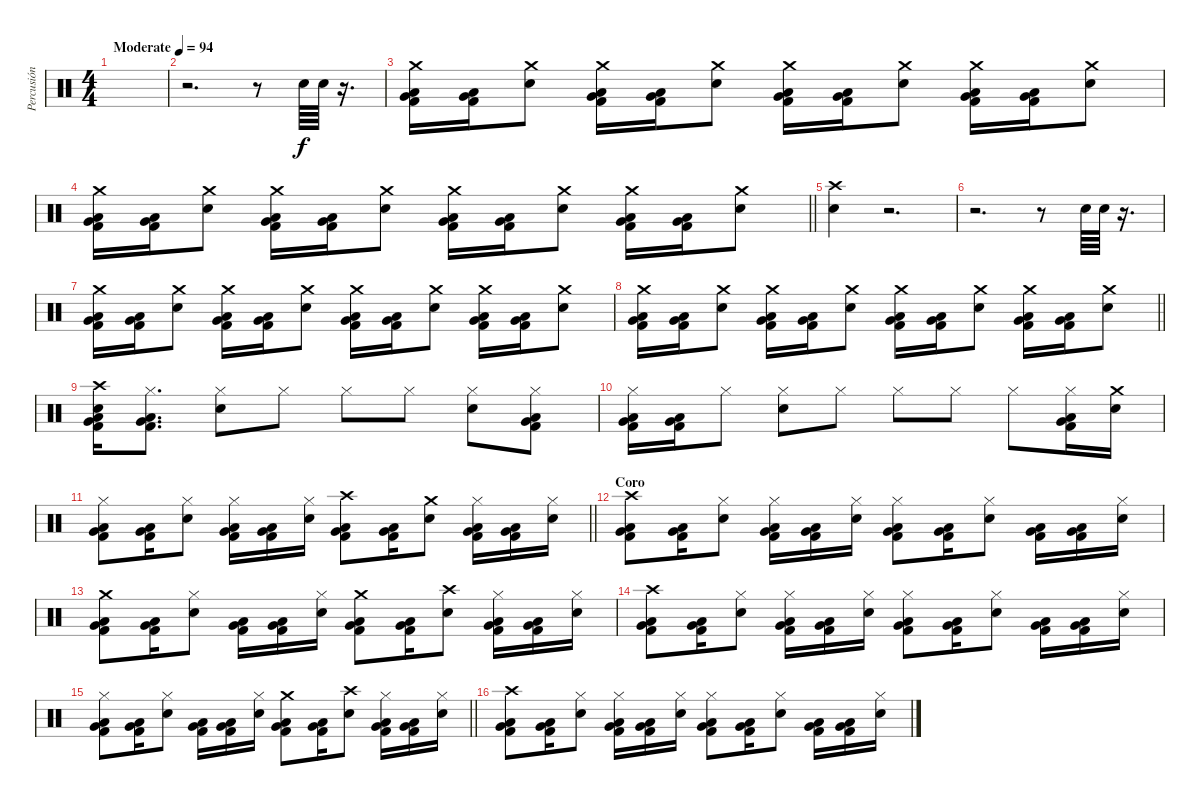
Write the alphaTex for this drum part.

\track ("Percusión" "Percusión") {instrument percussion}
\staff {score}
\articulation defaults
\ts (4 4)
\tempo (94 "Moderate")
\clef neutral
\ks c
|
r.2{d} r.8 "Electric Snare (hit)".64 "Electric Snare (hit)".64 r.16{d} |
("Crash medium (hit)" "Kick (hit) 2" "Low Floor Tom (hit)" "Very Low Tom (hit)").16 ("Kick (hit) 2" "Low Floor Tom (hit)" "Very Low Tom (hit)").16 ("Crash medium (hit)" "Electric Snare (hit)").8 ("Crash medium (hit)" "Kick (hit) 2" "Low Floor Tom (hit)" "Very Low Tom (hit)").16 ("Kick (hit) 2" "Low Floor Tom (hit)" "Very Low Tom (hit)").16 ("Crash medium (hit)" "Electric Snare (hit)").8 ("Crash medium (hit)" "Kick (hit) 2" "Low Floor Tom (hit)" "Very Low Tom (hit)").16 ("Kick (hit) 2" "Low Floor Tom (hit)" "Very Low Tom (hit)").16 ("Crash medium (hit)" "Electric Snare (hit)").8 ("Crash medium (hit)" "Kick (hit) 2" "Low Floor Tom (hit)" "Very Low Tom (hit)").16 ("Kick (hit) 2" "Low Floor Tom (hit)" "Very Low Tom (hit)").16 ("Crash medium (hit)" "Electric Snare (hit)").8 |
\barLineRight lightlight
("Crash medium (hit)" "Kick (hit) 2" "Low Floor Tom (hit)" "Very Low Tom (hit)").16 ("Kick (hit) 2" "Low Floor Tom (hit)" "Very Low Tom (hit)").16 ("Crash medium (hit)" "Electric Snare (hit)").8 ("Crash medium (hit)" "Kick (hit) 2" "Low Floor Tom (hit)" "Very Low Tom (hit)").16 ("Kick (hit) 2" "Low Floor Tom (hit)" "Very Low Tom (hit)").16 ("Crash medium (hit)" "Electric Snare (hit)").8 ("Crash medium (hit)" "Kick (hit) 2" "Low Floor Tom (hit)" "Very Low Tom (hit)").16 ("Kick (hit) 2" "Low Floor Tom (hit)" "Very Low Tom (hit)").16 ("Crash medium (hit)" "Electric Snare (hit)").8 ("Crash medium (hit)" "Kick (hit) 2" "Low Floor Tom (hit)" "Very Low Tom (hit)").16 ("Kick (hit) 2" "Low Floor Tom (hit)" "Very Low Tom (hit)").16 ("Crash medium (hit)" "Electric Snare (hit)").8 |
("Crash high (hit)" "Electric Snare (hit)").4 r.2{d} |
r.2{d} r.8 "Electric Snare (hit)".64 "Electric Snare (hit)".64 r.16{d} |
("Crash medium (hit)" "Kick (hit) 2" "Low Floor Tom (hit)" "Very Low Tom (hit)").16 ("Kick (hit) 2" "Low Floor Tom (hit)" "Very Low Tom (hit)").16 ("Crash medium (hit)" "Electric Snare (hit)").8 ("Crash medium (hit)" "Kick (hit) 2" "Low Floor Tom (hit)" "Very Low Tom (hit)").16 ("Kick (hit) 2" "Low Floor Tom (hit)" "Very Low Tom (hit)").16 ("Crash medium (hit)" "Electric Snare (hit)").8 ("Crash medium (hit)" "Kick (hit) 2" "Low Floor Tom (hit)" "Very Low Tom (hit)").16 ("Kick (hit) 2" "Low Floor Tom (hit)" "Very Low Tom (hit)").16 ("Crash medium (hit)" "Electric Snare (hit)").8 ("Crash medium (hit)" "Kick (hit) 2" "Low Floor Tom (hit)" "Very Low Tom (hit)").16 ("Kick (hit) 2" "Low Floor Tom (hit)" "Very Low Tom (hit)").16 ("Crash medium (hit)" "Electric Snare (hit)").8 |
\barLineRight lightlight
("Crash medium (hit)" "Kick (hit) 2" "Low Floor Tom (hit)" "Very Low Tom (hit)").16 ("Kick (hit) 2" "Low Floor Tom (hit)" "Very Low Tom (hit)").16 ("Crash medium (hit)" "Electric Snare (hit)").8 ("Crash medium (hit)" "Kick (hit) 2" "Low Floor Tom (hit)" "Very Low Tom (hit)").16 ("Kick (hit) 2" "Low Floor Tom (hit)" "Very Low Tom (hit)").16 ("Crash medium (hit)" "Electric Snare (hit)").8 ("Crash medium (hit)" "Kick (hit) 2" "Low Floor Tom (hit)" "Very Low Tom (hit)").16 ("Kick (hit) 2" "Low Floor Tom (hit)" "Very Low Tom (hit)").16 ("Crash medium (hit)" "Electric Snare (hit)").8 ("Crash medium (hit)" "Kick (hit) 2" "Low Floor Tom (hit)" "Very Low Tom (hit)").16 ("Kick (hit) 2" "Low Floor Tom (hit)" "Very Low Tom (hit)").16 ("Crash medium (hit)" "Electric Snare (hit)").8 |
("Crash high (hit)" "Electric Snare (hit)" "Low Floor Tom (hit)" "Kick (hit) 2" "Very Low Tom (hit)").16 ("Hi-Hat (closed)" "Low Floor Tom (hit)" "Kick (hit) 2" "Very Low Tom (hit)").8{d} ("Hi-Hat (closed)" "Electric Snare (hit)").8 "Hi-Hat (closed)".8 "Hi-Hat (closed)".8 "Hi-Hat (closed)".8 ("Hi-Hat (closed)" "Electric Snare (hit)").8 ("Hi-Hat (closed)" "Kick (hit) 2" "Low Floor Tom (hit)" "Very Low Tom (hit)").8 |
("Hi-Hat (closed)" "Kick (hit) 2" "Low Floor Tom (hit)" "Very Low Tom (hit)").16 ("Kick (hit) 2" "Low Floor Tom (hit)" "Very Low Tom (hit)").16 "Hi-Hat (closed)".8 ("Hi-Hat (closed)" "Electric Snare (hit)").8 "Hi-Hat (closed)".8 "Hi-Hat (closed)".8 "Hi-Hat (closed)".8 "Hi-Hat (closed)".8 ("Hi-Hat (closed)" "Kick (hit) 2" "Low Floor Tom (hit)" "Very Low Tom (hit)").16 ("Crash medium (hit)" "Electric Snare (hit)").16 |
\barLineRight lightlight
("Hi-Hat (closed)" "Kick (hit) 2" "Low Floor Tom (hit)" "Very Low Tom (hit)").8 ("Kick (hit) 2" "Low Floor Tom (hit)" "Very Low Tom (hit)").16 ("Hi-Hat (closed)" "Electric Snare (hit)").8 ("Hi-Hat (closed)" "Kick (hit) 2" "Low Floor Tom (hit)" "Very Low Tom (hit)").16 ("Kick (hit) 2" "Low Floor Tom (hit)" "Very Low Tom (hit)").16 ("Hi-Hat (closed)" "Electric Snare (hit)").16 ("Crash high (hit)" "Kick (hit) 2" "Low Floor Tom (hit)" "Very Low Tom (hit)").8 ("Kick (hit) 2" "Low Floor Tom (hit)" "Very Low Tom (hit)").16 ("Crash medium (hit)" "Electric Snare (hit)").8 ("Hi-Hat (closed)" "Kick (hit) 2" "Low Floor Tom (hit)" "Very Low Tom (hit)").16 ("Kick (hit) 2" "Low Floor Tom (hit)" "Very Low Tom (hit)").16 ("Hi-Hat (closed)" "Electric Snare (hit)").16 |
\section ("" "Coro")
("Crash high (hit)" "Kick (hit) 2" "Low Floor Tom (hit)" "Very Low Tom (hit)").8 ("Kick (hit) 2" "Low Floor Tom (hit)" "Very Low Tom (hit)").16 ("Hi-Hat (closed)" "Electric Snare (hit)").8 ("Hi-Hat (closed)" "Kick (hit) 2" "Low Floor Tom (hit)" "Very Low Tom (hit)").16 ("Kick (hit) 2" "Low Floor Tom (hit)" "Very Low Tom (hit)").16 ("Hi-Hat (closed)" "Electric Snare (hit)").16 ("Hi-Hat (closed)" "Kick (hit) 2" "Low Floor Tom (hit)" "Very Low Tom (hit)").8 ("Kick (hit) 2" "Low Floor Tom (hit)" "Very Low Tom (hit)").16 ("Hi-Hat (closed)" "Electric Snare (hit)").8 ("Kick (hit) 2" "Low Floor Tom (hit)" "Very Low Tom (hit)").16 ("Kick (hit) 2" "Low Floor Tom (hit)" "Very Low Tom (hit)").16 ("Hi-Hat (closed)" "Electric Snare (hit)").16 |
("Crash medium (hit)" "Kick (hit) 2" "Low Floor Tom (hit)" "Very Low Tom (hit)").8 ("Kick (hit) 2" "Low Floor Tom (hit)" "Very Low Tom (hit)").16 ("Hi-Hat (closed)" "Electric Snare (hit)").8 ("Kick (hit) 2" "Low Floor Tom (hit)" "Very Low Tom (hit)").16 ("Kick (hit) 2" "Low Floor Tom (hit)" "Very Low Tom (hit)").16 ("Hi-Hat (closed)" "Electric Snare (hit)").16 ("Crash medium (hit)" "Kick (hit) 2" "Low Floor Tom (hit)" "Very Low Tom (hit)").8 ("Kick (hit) 2" "Low Floor Tom (hit)" "Very Low Tom (hit)").16 ("Crash high (hit)" "Electric Snare (hit)").8 ("Hi-Hat (closed)" "Kick (hit) 2" "Low Floor Tom (hit)" "Very Low Tom (hit)").16 ("Kick (hit) 2" "Low Floor Tom (hit)" "Very Low Tom (hit)").16 ("Hi-Hat (closed)" "Electric Snare (hit)").16 |
("Crash high (hit)" "Kick (hit) 2" "Low Floor Tom (hit)" "Very Low Tom (hit)").8 ("Kick (hit) 2" "Low Floor Tom (hit)" "Very Low Tom (hit)").16 ("Hi-Hat (closed)" "Electric Snare (hit)").8 ("Hi-Hat (closed)" "Kick (hit) 2" "Low Floor Tom (hit)" "Very Low Tom (hit)").16 ("Kick (hit) 2" "Low Floor Tom (hit)" "Very Low Tom (hit)").16 ("Hi-Hat (closed)" "Electric Snare (hit)").16 ("Hi-Hat (closed)" "Kick (hit) 2" "Low Floor Tom (hit)" "Very Low Tom (hit)").8 ("Kick (hit) 2" "Low Floor Tom (hit)" "Very Low Tom (hit)").16 ("Hi-Hat (closed)" "Electric Snare (hit)").8 ("Kick (hit) 2" "Low Floor Tom (hit)" "Very Low Tom (hit)").16 ("Kick (hit) 2" "Low Floor Tom (hit)" "Very Low Tom (hit)").16 ("Hi-Hat (closed)" "Electric Snare (hit)").16 |
\barLineRight lightlight
("Hi-Hat (closed)" "Kick (hit) 2" "Low Floor Tom (hit)" "Very Low Tom (hit)").8 ("Kick (hit) 2" "Low Floor Tom (hit)" "Very Low Tom (hit)").16 ("Hi-Hat (closed)" "Electric Snare (hit)").8 ("Kick (hit) 2" "Low Floor Tom (hit)" "Very Low Tom (hit)").16 ("Kick (hit) 2" "Low Floor Tom (hit)" "Very Low Tom (hit)").16 ("Hi-Hat (closed)" "Electric Snare (hit)").16 ("Crash medium (hit)" "Kick (hit) 2" "Low Floor Tom (hit)" "Very Low Tom (hit)").8 ("Kick (hit) 2" "Low Floor Tom (hit)" "Very Low Tom (hit)").16 ("Crash high (hit)" "Electric Snare (hit)").8 ("Hi-Hat (closed)" "Kick (hit) 2" "Low Floor Tom (hit)" "Very Low Tom (hit)").16 ("Kick (hit) 2" "Low Floor Tom (hit)" "Very Low Tom (hit)").16 ("Hi-Hat (closed)" "Electric Snare (hit)").16 |
("Crash high (hit)" "Kick (hit) 2" "Low Floor Tom (hit)" "Very Low Tom (hit)").8 ("Kick (hit) 2" "Low Floor Tom (hit)" "Very Low Tom (hit)").16 ("Hi-Hat (closed)" "Electric Snare (hit)").8 ("Hi-Hat (closed)" "Kick (hit) 2" "Low Floor Tom (hit)" "Very Low Tom (hit)").16 ("Kick (hit) 2" "Low Floor Tom (hit)" "Very Low Tom (hit)").16 ("Hi-Hat (closed)" "Electric Snare (hit)").16 ("Hi-Hat (closed)" "Kick (hit) 2" "Low Floor Tom (hit)" "Very Low Tom (hit)").8 ("Kick (hit) 2" "Low Floor Tom (hit)" "Very Low Tom (hit)").16 ("Hi-Hat (closed)" "Electric Snare (hit)").8 ("Kick (hit) 2" "Low Floor Tom (hit)" "Very Low Tom (hit)").16 ("Kick (hit) 2" "Low Floor Tom (hit)" "Very Low Tom (hit)").16 ("Hi-Hat (closed)" "Electric Snare (hit)").16
